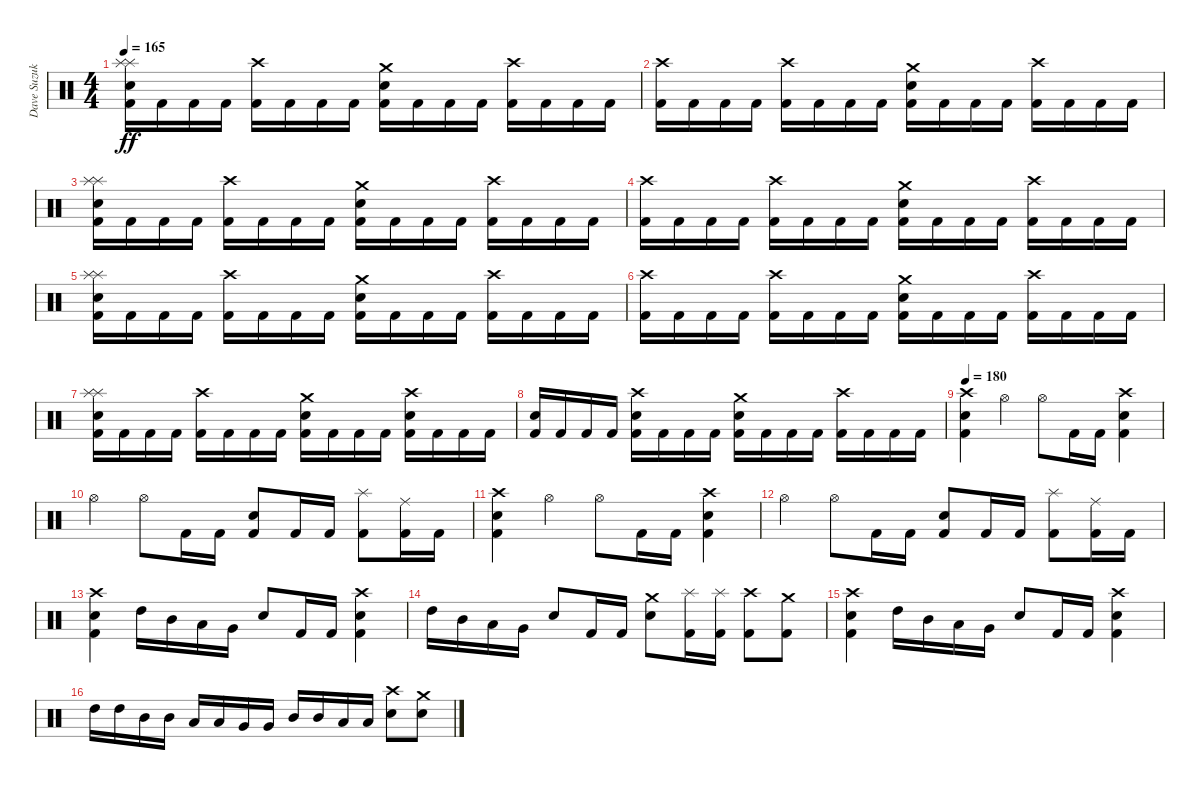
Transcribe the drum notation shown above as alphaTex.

\track ("Dave Suzuki - Drums" "Dave Suzuk") {instrument percussion}
\staff {score}
\articulation defaults
\ts (4 4)
\tempo 165
\clef neutral
\ks c
("Splash (hit)" "Splash (hit)" "Electric Snare (hit)" "Kick (hit) 2").16{dy ff} "Kick (hit) 2".16 "Kick (hit) 2".16 "Kick (hit) 2".16 ("Crash high (hit)" "Kick (hit) 2").16 "Kick (hit) 2".16 "Kick (hit) 2".16 "Kick (hit) 2".16 ("Crash medium (hit)" "Electric Snare (hit)" "Kick (hit) 2").16 "Kick (hit) 2".16 "Kick (hit) 2".16 "Kick (hit) 2".16 ("Crash high (hit)" "Kick (hit) 2").16 "Kick (hit) 2".16 "Kick (hit) 2".16 "Kick (hit) 2".16 |
("Crash high (hit)" "Kick (hit) 2").16 "Kick (hit) 2".16 "Kick (hit) 2".16 "Kick (hit) 2".16 ("Crash high (hit)" "Kick (hit) 2").16 "Kick (hit) 2".16 "Kick (hit) 2".16 "Kick (hit) 2".16 ("Crash medium (hit)" "Electric Snare (hit)" "Kick (hit) 2").16 "Kick (hit) 2".16 "Kick (hit) 2".16 "Kick (hit) 2".16 ("Crash high (hit)" "Kick (hit) 2").16 "Kick (hit) 2".16 "Kick (hit) 2".16 "Kick (hit) 2".16 |
("Splash (hit)" "Splash (hit)" "Electric Snare (hit)" "Kick (hit) 2").16 "Kick (hit) 2".16 "Kick (hit) 2".16 "Kick (hit) 2".16 ("Crash high (hit)" "Kick (hit) 2").16 "Kick (hit) 2".16 "Kick (hit) 2".16 "Kick (hit) 2".16 ("Crash medium (hit)" "Electric Snare (hit)" "Kick (hit) 2").16 "Kick (hit) 2".16 "Kick (hit) 2".16 "Kick (hit) 2".16 ("Crash high (hit)" "Kick (hit) 2").16 "Kick (hit) 2".16 "Kick (hit) 2".16 "Kick (hit) 2".16 |
("Crash high (hit)" "Kick (hit) 2").16 "Kick (hit) 2".16 "Kick (hit) 2".16 "Kick (hit) 2".16 ("Crash high (hit)" "Kick (hit) 2").16 "Kick (hit) 2".16 "Kick (hit) 2".16 "Kick (hit) 2".16 ("Crash medium (hit)" "Electric Snare (hit)" "Kick (hit) 2").16 "Kick (hit) 2".16 "Kick (hit) 2".16 "Kick (hit) 2".16 ("Crash high (hit)" "Kick (hit) 2").16 "Kick (hit) 2".16 "Kick (hit) 2".16 "Kick (hit) 2".16 |
("Splash (hit)" "Splash (hit)" "Electric Snare (hit)" "Kick (hit) 2").16 "Kick (hit) 2".16 "Kick (hit) 2".16 "Kick (hit) 2".16 ("Crash high (hit)" "Kick (hit) 2").16 "Kick (hit) 2".16 "Kick (hit) 2".16 "Kick (hit) 2".16 ("Crash medium (hit)" "Electric Snare (hit)" "Kick (hit) 2").16 "Kick (hit) 2".16 "Kick (hit) 2".16 "Kick (hit) 2".16 ("Crash high (hit)" "Kick (hit) 2").16 "Kick (hit) 2".16 "Kick (hit) 2".16 "Kick (hit) 2".16 |
("Crash high (hit)" "Kick (hit) 2").16 "Kick (hit) 2".16 "Kick (hit) 2".16 "Kick (hit) 2".16 ("Crash high (hit)" "Kick (hit) 2").16 "Kick (hit) 2".16 "Kick (hit) 2".16 "Kick (hit) 2".16 ("Crash medium (hit)" "Electric Snare (hit)" "Kick (hit) 2").16 "Kick (hit) 2".16 "Kick (hit) 2".16 "Kick (hit) 2".16 ("Crash high (hit)" "Kick (hit) 2").16 "Kick (hit) 2".16 "Kick (hit) 2".16 "Kick (hit) 2".16 |
("Splash (hit)" "Splash (hit)" "Electric Snare (hit)" "Kick (hit) 2").16 "Kick (hit) 2".16 "Kick (hit) 2".16 "Kick (hit) 2".16 ("Crash high (hit)" "Kick (hit) 2").16 "Kick (hit) 2".16 "Kick (hit) 2".16 "Kick (hit) 2".16 ("Crash medium (hit)" "Electric Snare (hit)" "Kick (hit) 2").16 "Kick (hit) 2".16 "Kick (hit) 2".16 "Kick (hit) 2".16 ("Crash high (hit)" "Electric Snare (hit)" "Kick (hit) 2").16 "Kick (hit) 2".16 "Kick (hit) 2".16 "Kick (hit) 2".16 |
("Electric Snare (hit)" "Kick (hit) 2").16 "Kick (hit) 2".16 "Kick (hit) 2".16 "Kick (hit) 2".16 ("Crash high (hit)" "Electric Snare (hit)" "Kick (hit) 2").16 "Kick (hit) 2".16 "Kick (hit) 2".16 "Kick (hit) 2".16 ("Crash medium (hit)" "Electric Snare (hit)" "Kick (hit) 2").16 "Kick (hit) 2".16 "Kick (hit) 2".16 "Kick (hit) 2".16 ("Crash high (hit)" "Kick (hit) 2").16 "Kick (hit) 2".16 "Kick (hit) 2".16 "Kick (hit) 2".16 |
\tempo 180
("Crash high (hit)" "Electric Snare (hit)" "Kick (hit) 2").4 "Hi-Hat (open)".4 "Hi-Hat (open)".8 "Kick (hit) 2".16 "Kick (hit) 2".16 ("Crash high (hit)" "Electric Snare (hit)" "Kick (hit) 2").4 |
"Hi-Hat (open)".4 "Hi-Hat (open)".8 "Kick (hit) 2".16 "Kick (hit) 2".16 ("Electric Snare (hit)" "Kick (hit) 2").8 "Kick (hit) 2".16 "Kick (hit) 2".16 ("Splash (hit)" "Kick (hit) 2").8 ("Ride (middle)" "Kick (hit) 2").16 "Kick (hit) 2".16 |
("Crash high (hit)" "Electric Snare (hit)" "Kick (hit) 2").4 "Hi-Hat (open)".4 "Hi-Hat (open)".8 "Kick (hit) 2".16 "Kick (hit) 2".16 ("Crash high (hit)" "Electric Snare (hit)" "Kick (hit) 2").4 |
"Hi-Hat (open)".4 "Hi-Hat (open)".8 "Kick (hit) 2".16 "Kick (hit) 2".16 ("Electric Snare (hit)" "Kick (hit) 2").8 "Kick (hit) 2".16 "Kick (hit) 2".16 ("Splash (hit)" "Kick (hit) 2").8 ("Ride (middle)" "Kick (hit) 2").16 "Kick (hit) 2".16 |
("Crash high (hit)" "Electric Snare (hit)" "Kick (hit) 2").4 "High Tom (hit)".16 "Mid Tom (hit)".16 "Low Tom (hit)".16 "Very Low Tom (hit)".16 "Electric Snare (hit)".8 "Kick (hit) 2".16 "Kick (hit) 2".16 ("Crash high (hit)" "Electric Snare (hit)" "Kick (hit) 2").4 |
"High Tom (hit)".16 "Mid Tom (hit)".16 "Low Tom (hit)".16 "Very Low Tom (hit)".16 "Electric Snare (hit)".8 "Kick (hit) 2".16 "Kick (hit) 2".16 ("Crash medium (hit)" "Electric Snare (hit)").8 ("Splash (hit)" "Kick (hit) 2").16 ("Splash (hit)" "Kick (hit) 2").16 ("Crash high (hit)" "Kick (hit) 2").8 ("Crash medium (hit)" "Kick (hit) 2").8 |
("Crash high (hit)" "Electric Snare (hit)" "Kick (hit) 2").4 "High Tom (hit)".16 "Mid Tom (hit)".16 "Low Tom (hit)".16 "Very Low Tom (hit)".16 "Electric Snare (hit)".8 "Kick (hit) 2".16 "Kick (hit) 2".16 ("Crash high (hit)" "Electric Snare (hit)" "Kick (hit) 2").4 |
"High Tom (hit)".16 "High Tom (hit)".16 "Mid Tom (hit)".16 "Mid Tom (hit)".16 "Low Tom (hit)".16 "Low Tom (hit)".16 "Very Low Tom (hit)".16 "Very Low Tom (hit)".16 "Mid Tom (hit)".16 "Mid Tom (hit)".16 "Low Tom (hit)".16 "Low Tom (hit)".16 ("Crash high (hit)" "Electric Snare (hit)").8 ("Crash medium (hit)" "Electric Snare (hit)").8
